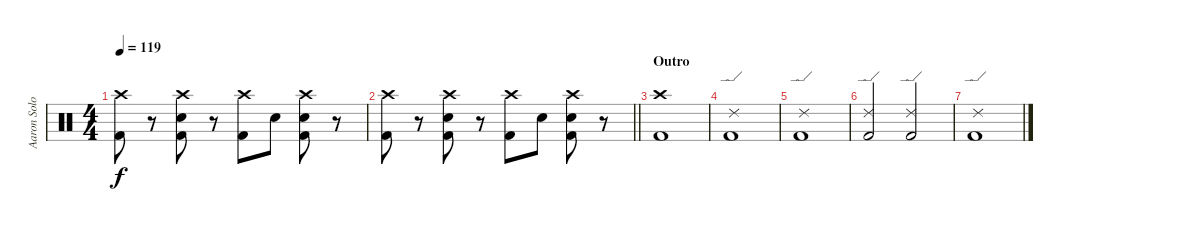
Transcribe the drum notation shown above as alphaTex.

\track ("Aaron Solowoniuk (Drums)" "Aaron Solo") {instrument percussion}
\staff {score}
\articulation defaults
\ts (4 4)
\tempo 119
\clef neutral
\ks c
("Crash high (hit)" "Kick (hit) 2").8{dy f} r.8 ("Crash high (hit)" "Electric Snare (hit)" "Kick (hit) 2").8 r.8 ("Crash high (hit)" "Kick (hit) 2").8 "Electric Snare (hit)".8 ("Crash high (hit)" "Electric Snare (hit)" "Kick (hit) 2").8 r.8 |
\barLineRight lightlight
("Crash high (hit)" "Kick (hit) 2").8 r.8 ("Crash high (hit)" "Electric Snare (hit)" "Kick (hit) 2").8 r.8 ("Crash high (hit)" "Kick (hit) 2").8 "Electric Snare (hit)".8 ("Crash high (hit)" "Electric Snare (hit)" "Kick (hit) 2").8 r.8 |
\section ("" "Outro")
("Crash high (hit)" "Kick (hit) 2").1 |
("Ride (edge) 2" "Kick (hit) 2").1 |
("Ride (edge) 2" "Kick (hit) 2").1 |
("Ride (edge) 2" "Kick (hit) 2").2 ("Ride (edge) 2" "Kick (hit) 2").2 |
("Ride (edge) 2" "Kick (hit) 2").1
